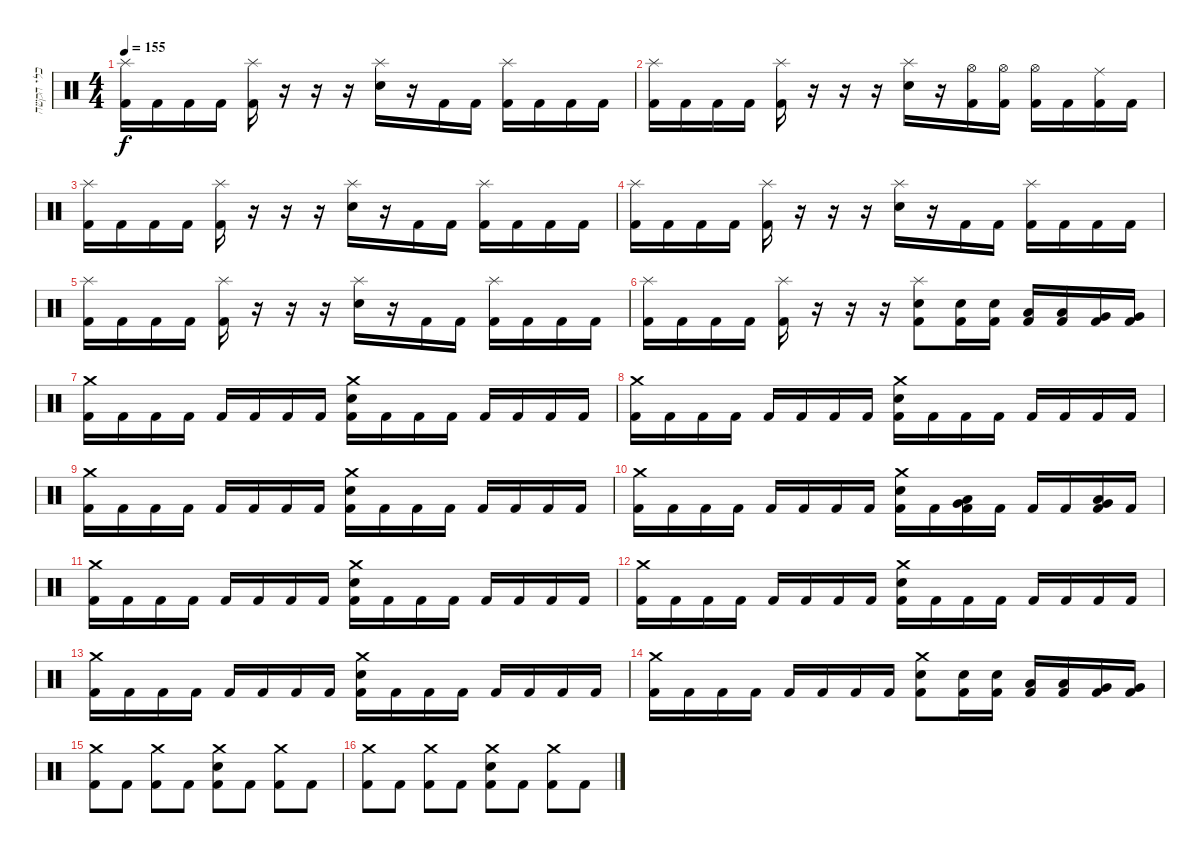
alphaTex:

\track ("כלי הקשה" "כלי הקשה") {instrument percussion}
\staff {score}
\articulation defaults
\ts (4 4)
\tempo 155
\clef neutral
\ks c
("Splash (hit)" "Kick (hit) 2").16{dy f} "Kick (hit) 2".16 "Kick (hit) 2".16 "Kick (hit) 2".16 ("Splash (hit)" "Kick (hit) 2").16 r.16 r.16 r.16 ("Splash (hit)" "Snare (hit) 2").16 r.16 "Kick (hit) 2".16 "Kick (hit) 2".16 ("Splash (hit)" "Kick (hit) 2").16 "Kick (hit) 2".16 "Kick (hit) 2".16 "Kick (hit) 2".16 |
("Splash (hit)" "Kick (hit) 2").16 "Kick (hit) 2".16 "Kick (hit) 2".16 "Kick (hit) 2".16 ("Splash (hit)" "Kick (hit) 2").16 r.16 r.16 r.16 ("Splash (hit)" "Snare (hit) 2").16 r.16 ("Hi-Hat (open)" "Kick (hit) 2").16 ("Hi-Hat (open)" "Kick (hit) 2").16 ("Hi-Hat (open)" "Kick (hit) 2").16 "Kick (hit) 2".16 ("Ride (middle)" "Kick (hit) 2").16 "Kick (hit) 2".16 |
("Splash (hit)" "Kick (hit) 2").16 "Kick (hit) 2".16 "Kick (hit) 2".16 "Kick (hit) 2".16 ("Splash (hit)" "Kick (hit) 2").16 r.16 r.16 r.16 ("Splash (hit)" "Snare (hit) 2").16 r.16 "Kick (hit) 2".16 "Kick (hit) 2".16 ("Splash (hit)" "Kick (hit) 2").16 "Kick (hit) 2".16 "Kick (hit) 2".16 "Kick (hit) 2".16 |
("Splash (hit)" "Kick (hit) 2").16 "Kick (hit) 2".16 "Kick (hit) 2".16 "Kick (hit) 2".16 ("Splash (hit)" "Kick (hit) 2").16 r.16 r.16 r.16 ("Splash (hit)" "Snare (hit) 2").16 r.16 "Kick (hit) 2".16 "Kick (hit) 2".16 ("Splash (hit)" "Kick (hit) 2").16 "Kick (hit) 2".16 "Kick (hit) 2".16 "Kick (hit) 2".16 |
("Splash (hit)" "Kick (hit) 2").16 "Kick (hit) 2".16 "Kick (hit) 2".16 "Kick (hit) 2".16 ("Splash (hit)" "Kick (hit) 2").16 r.16 r.16 r.16 ("Splash (hit)" "Snare (hit) 2").16 r.16 "Kick (hit) 2".16 "Kick (hit) 2".16 ("Splash (hit)" "Kick (hit) 2").16 "Kick (hit) 2".16 "Kick (hit) 2".16 "Kick (hit) 2".16 |
("Splash (hit)" "Kick (hit) 2").16 "Kick (hit) 2".16 "Kick (hit) 2".16 "Kick (hit) 2".16 ("Splash (hit)" "Kick (hit) 2").16 r.16 r.16 r.16 ("Splash (hit)" "Snare (hit) 2" "Kick (hit) 2").8 ("Snare (hit) 2" "Kick (hit) 2").16 ("Snare (hit) 2" "Kick (hit) 2").16 ("Low Tom (hit)" "Kick (hit) 2").16 ("Low Tom (hit)" "Kick (hit) 2").16 ("Very Low Tom (hit)" "Kick (hit) 2").16 ("Very Low Tom (hit)" "Kick (hit) 2").16 |
("Crash medium (hit)" "Kick (hit) 2").16 "Kick (hit) 2".16 "Kick (hit) 2".16 "Kick (hit) 2".16 "Kick (hit) 2".16 "Kick (hit) 2".16 "Kick (hit) 2".16 "Kick (hit) 2".16 ("Crash medium (hit)" "Snare (hit) 2" "Kick (hit) 2").16 "Kick (hit) 2".16 "Kick (hit) 2".16 "Kick (hit) 2".16 "Kick (hit) 2".16 "Kick (hit) 2".16 "Kick (hit) 2".16 "Kick (hit) 2".16 |
("Crash medium (hit)" "Kick (hit) 2").16 "Kick (hit) 2".16 "Kick (hit) 2".16 "Kick (hit) 2".16 "Kick (hit) 2".16 "Kick (hit) 2".16 "Kick (hit) 2".16 "Kick (hit) 2".16 ("Crash medium (hit)" "Snare (hit) 2" "Kick (hit) 2").16 "Kick (hit) 2".16 "Kick (hit) 2".16 "Kick (hit) 2".16 "Kick (hit) 2".16 "Kick (hit) 2".16 "Kick (hit) 2".16 "Kick (hit) 2".16 |
("Crash medium (hit)" "Kick (hit) 2").16 "Kick (hit) 2".16 "Kick (hit) 2".16 "Kick (hit) 2".16 "Kick (hit) 2".16 "Kick (hit) 2".16 "Kick (hit) 2".16 "Kick (hit) 2".16 ("Crash medium (hit)" "Snare (hit) 2" "Kick (hit) 2").16 "Kick (hit) 2".16 "Kick (hit) 2".16 "Kick (hit) 2".16 "Kick (hit) 2".16 "Kick (hit) 2".16 "Kick (hit) 2".16 "Kick (hit) 2".16 |
("Crash medium (hit)" "Kick (hit) 2").16 "Kick (hit) 2".16 "Kick (hit) 2".16 "Kick (hit) 2".16 "Kick (hit) 2".16 "Kick (hit) 2".16 "Kick (hit) 2".16 "Kick (hit) 2".16 ("Crash medium (hit)" "Snare (hit) 2" "Kick (hit) 2").16 "Kick (hit) 2".16 ("Low Tom (hit)" "Very Low Tom (hit)" "Kick (hit) 2").16 "Kick (hit) 2".16 "Kick (hit) 2".16 "Kick (hit) 2".16 ("Low Tom (hit)" "Very Low Tom (hit)" "Kick (hit) 2").16 "Kick (hit) 2".16 |
("Crash medium (hit)" "Kick (hit) 2").16 "Kick (hit) 2".16 "Kick (hit) 2".16 "Kick (hit) 2".16 "Kick (hit) 2".16 "Kick (hit) 2".16 "Kick (hit) 2".16 "Kick (hit) 2".16 ("Crash medium (hit)" "Snare (hit) 2" "Kick (hit) 2").16 "Kick (hit) 2".16 "Kick (hit) 2".16 "Kick (hit) 2".16 "Kick (hit) 2".16 "Kick (hit) 2".16 "Kick (hit) 2".16 "Kick (hit) 2".16 |
("Crash medium (hit)" "Kick (hit) 2").16 "Kick (hit) 2".16 "Kick (hit) 2".16 "Kick (hit) 2".16 "Kick (hit) 2".16 "Kick (hit) 2".16 "Kick (hit) 2".16 "Kick (hit) 2".16 ("Crash medium (hit)" "Snare (hit) 2" "Kick (hit) 2").16 "Kick (hit) 2".16 "Kick (hit) 2".16 "Kick (hit) 2".16 "Kick (hit) 2".16 "Kick (hit) 2".16 "Kick (hit) 2".16 "Kick (hit) 2".16 |
("Crash medium (hit)" "Kick (hit) 2").16 "Kick (hit) 2".16 "Kick (hit) 2".16 "Kick (hit) 2".16 "Kick (hit) 2".16 "Kick (hit) 2".16 "Kick (hit) 2".16 "Kick (hit) 2".16 ("Crash medium (hit)" "Snare (hit) 2" "Kick (hit) 2").16 "Kick (hit) 2".16 "Kick (hit) 2".16 "Kick (hit) 2".16 "Kick (hit) 2".16 "Kick (hit) 2".16 "Kick (hit) 2".16 "Kick (hit) 2".16 |
("Crash medium (hit)" "Kick (hit) 2").16 "Kick (hit) 2".16 "Kick (hit) 2".16 "Kick (hit) 2".16 "Kick (hit) 2".16 "Kick (hit) 2".16 "Kick (hit) 2".16 "Kick (hit) 2".16 ("Crash medium (hit)" "Snare (hit) 2" "Kick (hit) 2").8 ("Snare (hit) 2" "Kick (hit) 2").16 ("Snare (hit) 2" "Kick (hit) 2").16 ("Low Tom (hit)" "Kick (hit) 2").16 ("Low Tom (hit)" "Kick (hit) 2").16 ("Very Low Tom (hit)" "Kick (hit) 2").16 ("Very Low Tom (hit)" "Kick (hit) 2").16 |
("Crash medium (hit)" "Kick (hit) 2").8 "Kick (hit) 2".8 ("Crash medium (hit)" "Kick (hit) 2").8 "Kick (hit) 2".8 ("Crash medium (hit)" "Snare (hit) 2" "Kick (hit) 2").8 "Kick (hit) 2".8 ("Crash medium (hit)" "Kick (hit) 2").8 "Kick (hit) 2".8 |
("Crash medium (hit)" "Kick (hit) 2").8 "Kick (hit) 2".8 ("Crash medium (hit)" "Kick (hit) 2").8 "Kick (hit) 2".8 ("Crash medium (hit)" "Snare (hit) 2" "Kick (hit) 2").8 "Kick (hit) 2".8 ("Crash medium (hit)" "Kick (hit) 2").8 "Kick (hit) 2".8
